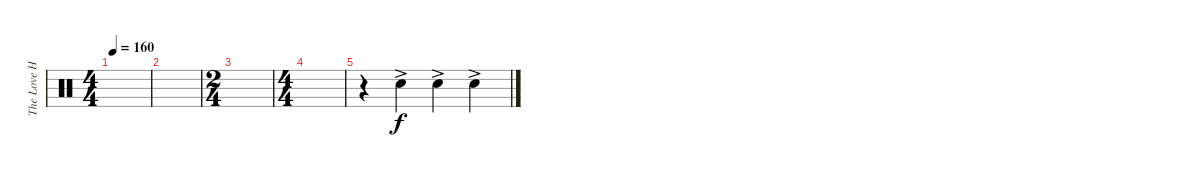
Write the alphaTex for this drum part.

\track ("The Love Haters (Hand Clap)(Drums)" "The Love H") {instrument percussion}
\staff {score}
\articulation defaults
\ts (4 4)
\tempo 160
\clef neutral
\ks c
|
|
\ts (2 4)
|
\ts (4 4)
|
r.4 "Hand Clap (hit)"{ac}.4 "Hand Clap (hit)"{ac}.4 "Hand Clap (hit)"{ac}.4
